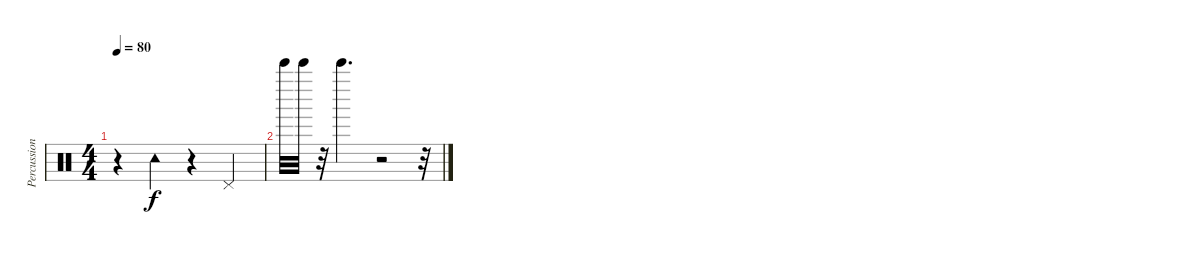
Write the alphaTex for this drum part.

\track ("Percussion" "Percussion") {instrument percussion}
\staff {score}
\articulation defaults
\ts (4 4)
\tempo 80
\clef neutral
\ks c
r.4{dy f} "Tambourine (hit)".4 r.4 "Pedal Hi-Hat (hit)".4 |
"Bell Tree (hit)".32 "Bell Tree (hit)".32 r.32 "Bell Tree (hit)".4{d} r.2 r.32
